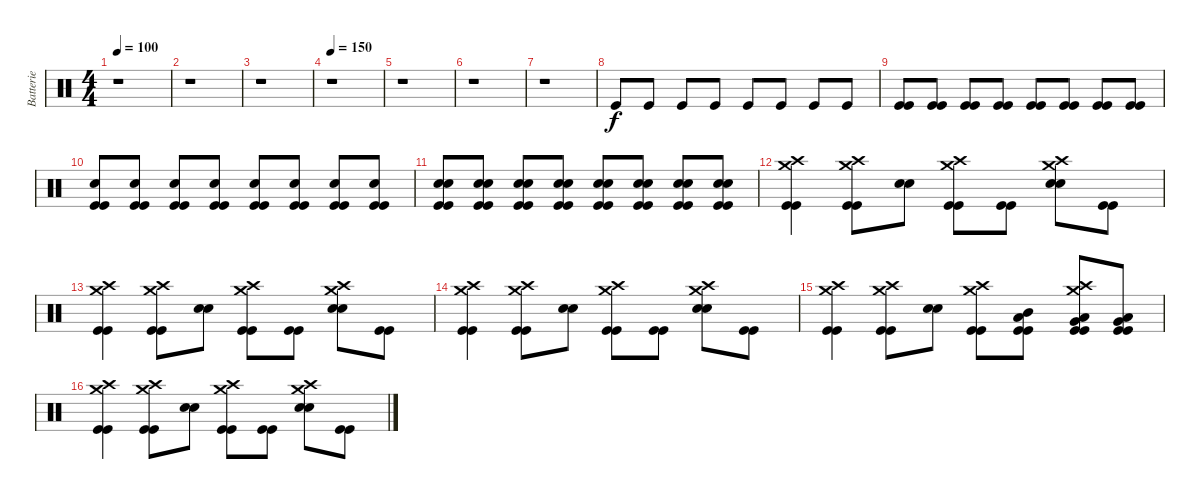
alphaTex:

\track ("Batterie" "Batterie") {instrument percussion}
\staff {score}
\articulation defaults
\ts (4 4)
\tempo 100
\clef neutral
\ks c
r.1{dy f} |
r.1 |
r.1 |
\tempo 150
r.1 |
r.1 |
r.1 |
r.1 |
"Kick (hit)".8 "Kick (hit)".8 "Kick (hit)".8 "Kick (hit)".8 "Kick (hit)".8 "Kick (hit)".8 "Kick (hit)".8 "Kick (hit)".8 |
("Kick (hit)" "Kick (hit)").8 ("Kick (hit)" "Kick (hit)").8 ("Kick (hit)" "Kick (hit)").8 ("Kick (hit)" "Kick (hit)").8 ("Kick (hit)" "Kick (hit)").8 ("Kick (hit)" "Kick (hit)").8 ("Kick (hit)" "Kick (hit)").8 ("Kick (hit)" "Kick (hit)").8 |
("Electric Snare (hit)" "Kick (hit)" "Kick (hit)").8 ("Electric Snare (hit)" "Kick (hit)" "Kick (hit)").8 ("Electric Snare (hit)" "Kick (hit)" "Kick (hit)").8 ("Electric Snare (hit)" "Kick (hit)" "Kick (hit)").8 ("Electric Snare (hit)" "Kick (hit)" "Kick (hit)").8 ("Electric Snare (hit)" "Kick (hit)" "Kick (hit)").8 ("Electric Snare (hit)" "Kick (hit)" "Kick (hit)").8 ("Electric Snare (hit)" "Kick (hit)" "Kick (hit)").8 |
("Electric Snare (hit)" "Electric Snare (hit)" "Kick (hit)" "Kick (hit)").8 ("Electric Snare (hit)" "Electric Snare (hit)" "Kick (hit)" "Kick (hit)").8 ("Electric Snare (hit)" "Electric Snare (hit)" "Kick (hit)" "Kick (hit)").8 ("Electric Snare (hit)" "Electric Snare (hit)" "Kick (hit)" "Kick (hit)").8 ("Electric Snare (hit)" "Electric Snare (hit)" "Kick (hit)" "Kick (hit)").8 ("Electric Snare (hit)" "Electric Snare (hit)" "Kick (hit)" "Kick (hit)").8 ("Electric Snare (hit)" "Electric Snare (hit)" "Kick (hit)" "Kick (hit)").8 ("Electric Snare (hit)" "Electric Snare (hit)" "Kick (hit)" "Kick (hit)").8 |
("Crash high (hit)" "Crash medium (hit)" "Kick (hit)" "Kick (hit)").4 ("Crash high (hit)" "Crash medium (hit)" "Kick (hit)" "Kick (hit)").8 ("Electric Snare (hit)" "Electric Snare (hit)").8 ("Crash high (hit)" "Crash medium (hit)" "Kick (hit)" "Kick (hit)").8 ("Kick (hit)" "Kick (hit)").8 ("Crash high (hit)" "Crash medium (hit)" "Electric Snare (hit)" "Electric Snare (hit)").8 ("Kick (hit)" "Kick (hit)").8 |
("Crash high (hit)" "Crash medium (hit)" "Kick (hit)" "Kick (hit)").4 ("Crash high (hit)" "Crash medium (hit)" "Kick (hit)" "Kick (hit)").8 ("Electric Snare (hit)" "Electric Snare (hit)").8 ("Crash high (hit)" "Crash medium (hit)" "Kick (hit)" "Kick (hit)").8 ("Kick (hit)" "Kick (hit)").8 ("Crash high (hit)" "Crash medium (hit)" "Electric Snare (hit)" "Electric Snare (hit)").8 ("Kick (hit)" "Kick (hit)").8 |
("Crash high (hit)" "Crash medium (hit)" "Kick (hit)" "Kick (hit)").4 ("Crash high (hit)" "Crash medium (hit)" "Kick (hit)" "Kick (hit)").8 ("Electric Snare (hit)" "Electric Snare (hit)").8 ("Crash high (hit)" "Crash medium (hit)" "Kick (hit)" "Kick (hit)").8 ("Kick (hit)" "Kick (hit)").8 ("Crash high (hit)" "Crash medium (hit)" "Electric Snare (hit)" "Electric Snare (hit)").8 ("Kick (hit)" "Kick (hit)").8 |
("Crash high (hit)" "Crash medium (hit)" "Kick (hit)" "Kick (hit)").4 ("Crash high (hit)" "Crash medium (hit)" "Kick (hit)" "Kick (hit)").8 ("Electric Snare (hit)" "Electric Snare (hit)").8 ("Crash high (hit)" "Crash medium (hit)" "Kick (hit)" "Kick (hit)").8 ("Mid Tom (hit)" "Low Floor Tom (hit)" "Kick (hit)" "Kick (hit)").8 ("Crash high (hit)" "Crash medium (hit)" "Very Low Tom (hit)" "Low Floor Tom (hit)" "Kick (hit)" "Kick (hit)").8 ("Very Low Tom (hit)" "Low Floor Tom (hit)" "Kick (hit)" "Kick (hit)").8 |
("Crash high (hit)" "Crash medium (hit)" "Kick (hit)" "Kick (hit)").4 ("Crash high (hit)" "Crash medium (hit)" "Kick (hit)" "Kick (hit)").8 ("Electric Snare (hit)" "Electric Snare (hit)").8 ("Crash high (hit)" "Crash medium (hit)" "Kick (hit)" "Kick (hit)").8 ("Kick (hit)" "Kick (hit)").8 ("Crash high (hit)" "Crash medium (hit)" "Electric Snare (hit)" "Electric Snare (hit)").8 ("Kick (hit)" "Kick (hit)").8
